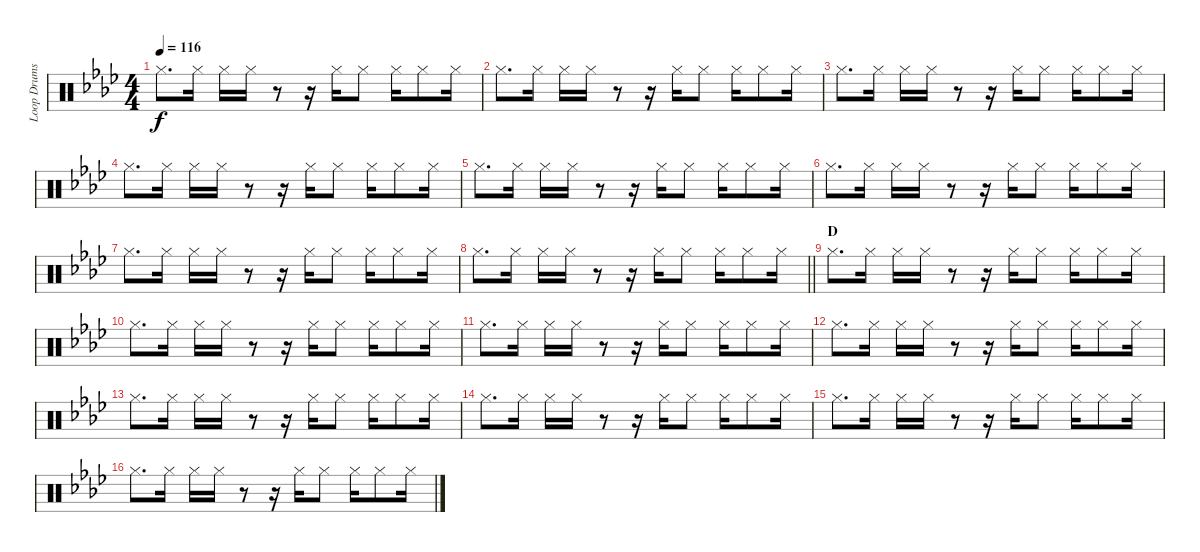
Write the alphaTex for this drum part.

\track ("Loop Drums II" "Loop Drums") {instrument percussion}
\staff {score}
\articulation defaults
\ts (4 4)
\tempo 116
\clef neutral
\ks ab "Hi-Hat (closed)".8{d dy f} "Hi-Hat (closed)".16 "Hi-Hat (closed)".16 "Hi-Hat (closed)".16
r.8 r.16 "Hi-Hat (closed)".16 "Hi-Hat (closed)".8 "Hi-Hat (closed)".16 "Hi-Hat (closed)".8 "Hi-Hat (closed)".16 |
"Hi-Hat (closed)".8{d} "Hi-Hat (closed)".16 "Hi-Hat (closed)".16 "Hi-Hat (closed)".16 r.8 r.16 "Hi-Hat (closed)".16 "Hi-Hat (closed)".8 "Hi-Hat (closed)".16 "Hi-Hat (closed)".8 "Hi-Hat (closed)".16 |
"Hi-Hat (closed)".8{d} "Hi-Hat (closed)".16 "Hi-Hat (closed)".16 "Hi-Hat (closed)".16 r.8 r.16 "Hi-Hat (closed)".16 "Hi-Hat (closed)".8 "Hi-Hat (closed)".16 "Hi-Hat (closed)".8 "Hi-Hat (closed)".16 |
"Hi-Hat (closed)".8{d} "Hi-Hat (closed)".16 "Hi-Hat (closed)".16 "Hi-Hat (closed)".16 r.8 r.16 "Hi-Hat (closed)".16 "Hi-Hat (closed)".8 "Hi-Hat (closed)".16 "Hi-Hat (closed)".8 "Hi-Hat (closed)".16 |
"Hi-Hat (closed)".8{d} "Hi-Hat (closed)".16 "Hi-Hat (closed)".16 "Hi-Hat (closed)".16 r.8 r.16 "Hi-Hat (closed)".16 "Hi-Hat (closed)".8 "Hi-Hat (closed)".16 "Hi-Hat (closed)".8 "Hi-Hat (closed)".16 |
"Hi-Hat (closed)".8{d} "Hi-Hat (closed)".16 "Hi-Hat (closed)".16 "Hi-Hat (closed)".16 r.8 r.16 "Hi-Hat (closed)".16 "Hi-Hat (closed)".8 "Hi-Hat (closed)".16 "Hi-Hat (closed)".8 "Hi-Hat (closed)".16 |
"Hi-Hat (closed)".8{d} "Hi-Hat (closed)".16 "Hi-Hat (closed)".16 "Hi-Hat (closed)".16 r.8 r.16 "Hi-Hat (closed)".16 "Hi-Hat (closed)".8 "Hi-Hat (closed)".16 "Hi-Hat (closed)".8 "Hi-Hat (closed)".16 |
\barLineRight lightlight "Hi-Hat (closed)".8{d} "Hi-Hat (closed)".16 "Hi-Hat (closed)".16 "Hi-Hat (closed)".16
r.8 r.16 "Hi-Hat (closed)".16 "Hi-Hat (closed)".8 "Hi-Hat (closed)".16 "Hi-Hat (closed)".8 "Hi-Hat (closed)".16 |
\section ("" "D")
"Hi-Hat (closed)".8{d} "Hi-Hat (closed)".16 "Hi-Hat (closed)".16 "Hi-Hat (closed)".16 r.8 r.16 "Hi-Hat (closed)".16 "Hi-Hat (closed)".8 "Hi-Hat (closed)".16 "Hi-Hat (closed)".8 "Hi-Hat (closed)".16 |
"Hi-Hat (closed)".8{d} "Hi-Hat (closed)".16 "Hi-Hat (closed)".16 "Hi-Hat (closed)".16 r.8 r.16 "Hi-Hat (closed)".16 "Hi-Hat (closed)".8 "Hi-Hat (closed)".16 "Hi-Hat (closed)".8 "Hi-Hat (closed)".16 |
"Hi-Hat (closed)".8{d} "Hi-Hat (closed)".16 "Hi-Hat (closed)".16 "Hi-Hat (closed)".16 r.8 r.16 "Hi-Hat (closed)".16 "Hi-Hat (closed)".8 "Hi-Hat (closed)".16 "Hi-Hat (closed)".8 "Hi-Hat (closed)".16 |
"Hi-Hat (closed)".8{d} "Hi-Hat (closed)".16 "Hi-Hat (closed)".16 "Hi-Hat (closed)".16 r.8 r.16 "Hi-Hat (closed)".16 "Hi-Hat (closed)".8 "Hi-Hat (closed)".16 "Hi-Hat (closed)".8 "Hi-Hat (closed)".16 |
"Hi-Hat (closed)".8{d} "Hi-Hat (closed)".16 "Hi-Hat (closed)".16 "Hi-Hat (closed)".16 r.8 r.16 "Hi-Hat (closed)".16 "Hi-Hat (closed)".8 "Hi-Hat (closed)".16 "Hi-Hat (closed)".8 "Hi-Hat (closed)".16 |
"Hi-Hat (closed)".8{d} "Hi-Hat (closed)".16 "Hi-Hat (closed)".16 "Hi-Hat (closed)".16 r.8 r.16 "Hi-Hat (closed)".16 "Hi-Hat (closed)".8 "Hi-Hat (closed)".16 "Hi-Hat (closed)".8 "Hi-Hat (closed)".16 |
"Hi-Hat (closed)".8{d} "Hi-Hat (closed)".16 "Hi-Hat (closed)".16 "Hi-Hat (closed)".16 r.8 r.16 "Hi-Hat (closed)".16 "Hi-Hat (closed)".8 "Hi-Hat (closed)".16 "Hi-Hat (closed)".8 "Hi-Hat (closed)".16 |
"Hi-Hat (closed)".8{d} "Hi-Hat (closed)".16 "Hi-Hat (closed)".16 "Hi-Hat (closed)".16 r.8 r.16 "Hi-Hat (closed)".16 "Hi-Hat (closed)".8 "Hi-Hat (closed)".16 "Hi-Hat (closed)".8 "Hi-Hat (closed)".16
